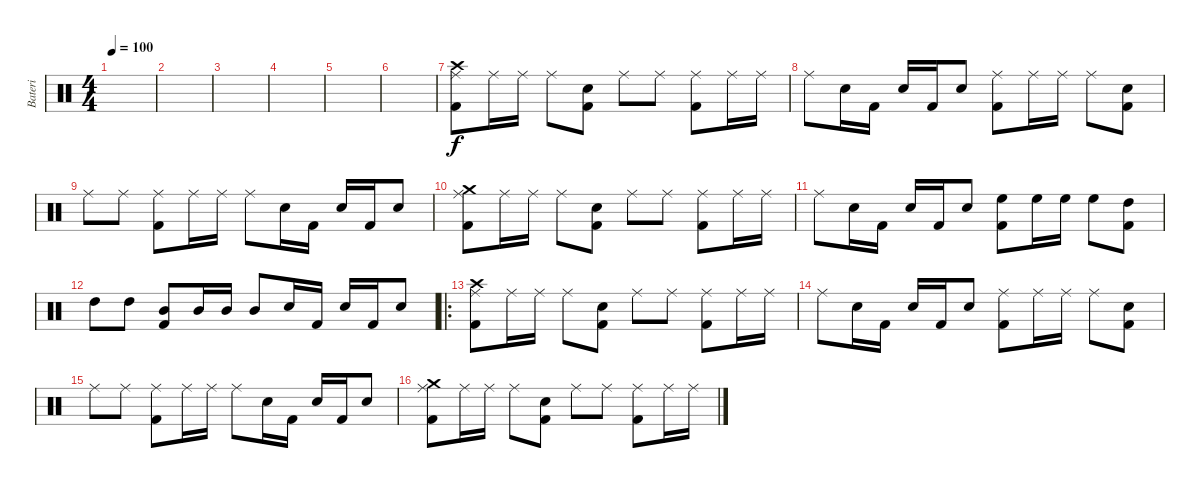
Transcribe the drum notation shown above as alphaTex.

\track ("Bateri" "Bateri") {instrument percussion}
\staff {score}
\articulation defaults
\ts (4 4)
\section ("" "")
\tempo 100
\clef neutral
\ks c
|
|
|
|
|
|
("Crash high (hit)" "Ride (middle)" "Kick (hit) 2").8 "Ride (middle)".16 "Ride (middle)".16 "Ride (middle)".8 ("Snare (hit) 2" "Kick (hit) 2").8 "Ride (middle)".8 "Ride (middle)".8 ("Ride (middle)" "Kick (hit) 2").8 "Ride (middle)".16 "Ride (middle)".16 |
"Ride (middle)".8 "Snare (hit) 2".16 "Kick (hit) 2".16 "Snare (hit) 2".16 "Kick (hit) 2".16 "Snare (hit) 2".8 ("Ride (middle)" "Kick (hit) 2").8 "Ride (middle)".16 "Ride (middle)".16 "Ride (middle)".8 ("Snare (hit) 2" "Kick (hit) 2").8 |
"Ride (middle)".8 "Ride (middle)".8 ("Ride (middle)" "Kick (hit) 2").8 "Ride (middle)".16 "Ride (middle)".16 "Ride (middle)".8 "Snare (hit) 2".16 "Kick (hit) 2".16 "Snare (hit) 2".16 "Kick (hit) 2".16 "Snare (hit) 2".8 |
("Crash medium (hit)" "Ride (middle)" "Kick (hit) 2").8 "Ride (middle)".16 "Ride (middle)".16 "Ride (middle)".8 ("Snare (hit) 2" "Kick (hit) 2").8 "Ride (middle)".8 "Ride (middle)".8 ("Ride (middle)" "Kick (hit) 2").8 "Ride (middle)".16 "Ride (middle)".16 |
"Ride (middle)".8 "Snare (hit) 2".16 "Kick (hit) 2".16 "Snare (hit) 2".16 "Kick (hit) 2".16 "Snare (hit) 2".8 ("High Floor Tom (hit)" "Kick (hit) 2").8 "High Floor Tom (hit)".16 "High Floor Tom (hit)".16 "High Floor Tom (hit)".8 ("High Tom (hit)" "Kick (hit) 2").8 |
"High Tom (hit)".8 "High Tom (hit)".8 ("Mid Tom (hit)" "Kick (hit) 2").8 "Mid Tom (hit)".16 "Mid Tom (hit)".16 "Mid Tom (hit)".8 "Snare (hit) 2".16 "Kick (hit) 2".16 "Snare (hit) 2".16 "Kick (hit) 2".16 "Snare (hit) 2".8 |
\ro
("Crash high (hit)" "Ride (middle)" "Kick (hit) 2").8 "Ride (middle)".16 "Ride (middle)".16 "Ride (middle)".8 ("Snare (hit) 2" "Kick (hit) 2").8 "Ride (middle)".8 "Ride (middle)".8 ("Ride (middle)" "Kick (hit) 2").8 "Ride (middle)".16 "Ride (middle)".16 |
"Ride (middle)".8 "Snare (hit) 2".16 "Kick (hit) 2".16 "Snare (hit) 2".16 "Kick (hit) 2".16 "Snare (hit) 2".8 ("Ride (middle)" "Kick (hit) 2").8 "Ride (middle)".16 "Ride (middle)".16 "Ride (middle)".8 ("Snare (hit) 2" "Kick (hit) 2").8 |
"Ride (middle)".8 "Ride (middle)".8 ("Ride (middle)" "Kick (hit) 2").8 "Ride (middle)".16 "Ride (middle)".16 "Ride (middle)".8 "Snare (hit) 2".16 "Kick (hit) 2".16 "Snare (hit) 2".16 "Kick (hit) 2".16 "Snare (hit) 2".8 |
("Crash medium (hit)" "Ride (middle)" "Kick (hit) 2").8 "Ride (middle)".16 "Ride (middle)".16 "Ride (middle)".8 ("Snare (hit) 2" "Kick (hit) 2").8 "Ride (middle)".8 "Ride (middle)".8 ("Ride (middle)" "Kick (hit) 2").8 "Ride (middle)".16 "Ride (middle)".16
